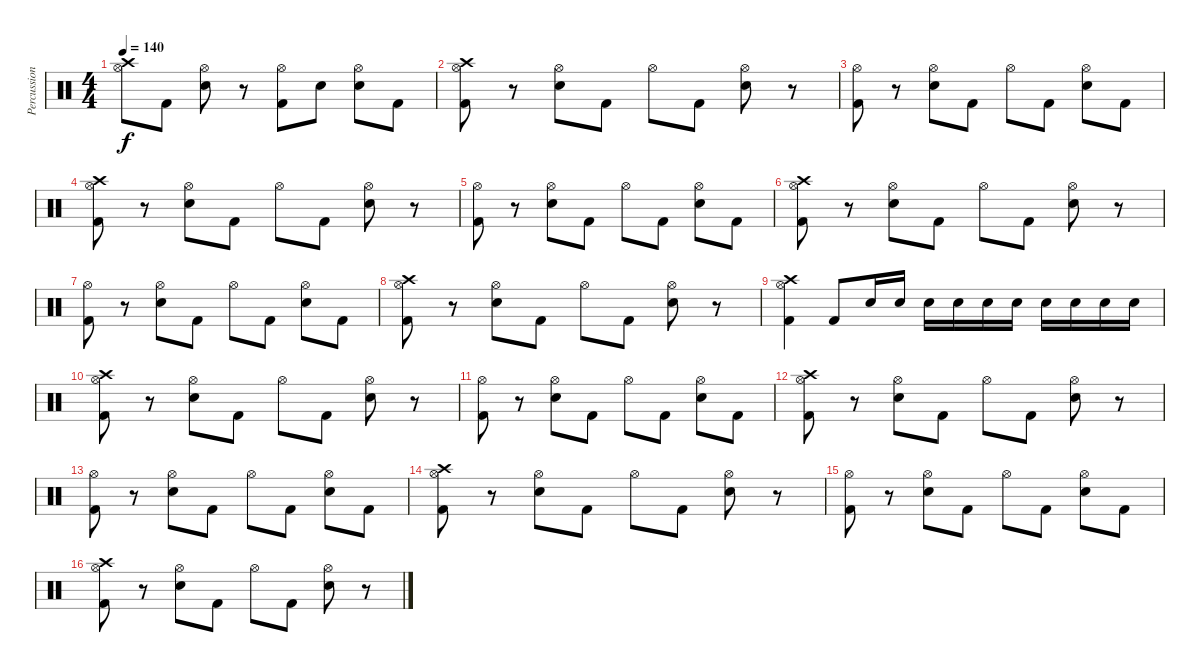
\track ("Percussion" "Percussion") {instrument percussion}
\staff {score}
\articulation defaults
\ts (4 4)
\tempo 140
\clef neutral
\ks c
("Hi-Hat (open)" "Crash high (hit)").8{dy f} "Kick (hit) 2".8 ("Hi-Hat (open)" "Electric Snare (hit)").8 r.8 ("Hi-Hat (open)" "Kick (hit) 2").8 "Electric Snare (hit)".8 ("Hi-Hat (open)" "Electric Snare (hit)").8 "Kick (hit) 2".8 |
("Hi-Hat (open)" "Crash high (hit)" "Kick (hit) 2").8 r.8 ("Hi-Hat (open)" "Electric Snare (hit)").8 "Kick (hit) 2".8 "Hi-Hat (open)".8 "Kick (hit) 2".8 ("Hi-Hat (open)" "Electric Snare (hit)").8 r.8 |
("Hi-Hat (open)" "Kick (hit) 2").8 r.8 ("Hi-Hat (open)" "Electric Snare (hit)").8 "Kick (hit) 2".8 "Hi-Hat (open)".8 "Kick (hit) 2".8 ("Hi-Hat (open)" "Electric Snare (hit)").8 "Kick (hit) 2".8 |
("Hi-Hat (open)" "Crash high (hit)" "Kick (hit) 2").8 r.8 ("Hi-Hat (open)" "Electric Snare (hit)").8 "Kick (hit) 2".8 "Hi-Hat (open)".8 "Kick (hit) 2".8 ("Hi-Hat (open)" "Electric Snare (hit)").8 r.8 |
("Hi-Hat (open)" "Kick (hit) 2").8 r.8 ("Hi-Hat (open)" "Electric Snare (hit)").8 "Kick (hit) 2".8 "Hi-Hat (open)".8 "Kick (hit) 2".8 ("Hi-Hat (open)" "Electric Snare (hit)").8 "Kick (hit) 2".8 |
("Hi-Hat (open)" "Crash high (hit)" "Kick (hit) 2").8 r.8 ("Hi-Hat (open)" "Electric Snare (hit)").8 "Kick (hit) 2".8 "Hi-Hat (open)".8 "Kick (hit) 2".8 ("Hi-Hat (open)" "Electric Snare (hit)").8 r.8 |
("Hi-Hat (open)" "Kick (hit) 2").8 r.8 ("Hi-Hat (open)" "Electric Snare (hit)").8 "Kick (hit) 2".8 "Hi-Hat (open)".8 "Kick (hit) 2".8 ("Hi-Hat (open)" "Electric Snare (hit)").8 "Kick (hit) 2".8 |
("Hi-Hat (open)" "Crash high (hit)" "Kick (hit) 2").8 r.8 ("Hi-Hat (open)" "Electric Snare (hit)").8 "Kick (hit) 2".8 "Hi-Hat (open)".8 "Kick (hit) 2".8 ("Hi-Hat (open)" "Electric Snare (hit)").8 r.8 |
("Hi-Hat (open)" "Crash high (hit)" "Kick (hit) 2").4 "Kick (hit) 2".8 "Snare (hit) 2".16 "Snare (hit) 2".16 "Snare (hit) 2".16 "Snare (hit) 2".16 "Snare (hit) 2".16 "Snare (hit) 2".16 "Snare (hit) 2".16 "Snare (hit) 2".16 "Snare (hit) 2".16 "Snare (hit) 2".16 |
("Hi-Hat (open)" "Crash high (hit)" "Kick (hit) 2").8 r.8 ("Hi-Hat (open)" "Electric Snare (hit)").8 "Kick (hit) 2".8 "Hi-Hat (open)".8 "Kick (hit) 2".8 ("Hi-Hat (open)" "Electric Snare (hit)").8 r.8 |
("Hi-Hat (open)" "Kick (hit) 2").8 r.8 ("Hi-Hat (open)" "Electric Snare (hit)").8 "Kick (hit) 2".8 "Hi-Hat (open)".8 "Kick (hit) 2".8 ("Hi-Hat (open)" "Electric Snare (hit)").8 "Kick (hit) 2".8 |
("Hi-Hat (open)" "Crash high (hit)" "Kick (hit) 2").8 r.8 ("Hi-Hat (open)" "Electric Snare (hit)").8 "Kick (hit) 2".8 "Hi-Hat (open)".8 "Kick (hit) 2".8 ("Hi-Hat (open)" "Electric Snare (hit)").8 r.8 |
("Hi-Hat (open)" "Kick (hit) 2").8 r.8 ("Hi-Hat (open)" "Electric Snare (hit)").8 "Kick (hit) 2".8 "Hi-Hat (open)".8 "Kick (hit) 2".8 ("Hi-Hat (open)" "Electric Snare (hit)").8 "Kick (hit) 2".8 |
("Hi-Hat (open)" "Crash high (hit)" "Kick (hit) 2").8 r.8 ("Hi-Hat (open)" "Electric Snare (hit)").8 "Kick (hit) 2".8 "Hi-Hat (open)".8 "Kick (hit) 2".8 ("Hi-Hat (open)" "Electric Snare (hit)").8 r.8 |
("Hi-Hat (open)" "Kick (hit) 2").8 r.8 ("Hi-Hat (open)" "Electric Snare (hit)").8 "Kick (hit) 2".8 "Hi-Hat (open)".8 "Kick (hit) 2".8 ("Hi-Hat (open)" "Electric Snare (hit)").8 "Kick (hit) 2".8 |
("Hi-Hat (open)" "Crash high (hit)" "Kick (hit) 2").8 r.8 ("Hi-Hat (open)" "Electric Snare (hit)").8 "Kick (hit) 2".8 "Hi-Hat (open)".8 "Kick (hit) 2".8 ("Hi-Hat (open)" "Electric Snare (hit)").8 r.8
